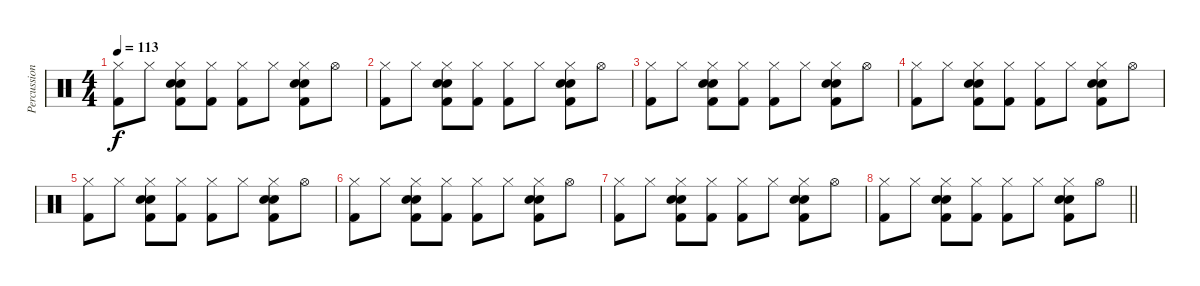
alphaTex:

\track ("Percussion" "Percussion") {instrument percussion}
\staff {score}
\articulation defaults
\ts (4 4)
\tempo 113
\clef neutral
\ks c
("Hi-Hat (closed)" "Kick (hit) 2").8{dy f} "Hi-Hat (closed)".8 ("Hand Clap (hit)" "Hi-Hat (closed)" "Electric Snare (hit)" "Kick (hit) 2").8 ("Hi-Hat (closed)" "Kick (hit) 2").8 ("Hi-Hat (closed)" "Kick (hit) 2").8 "Hi-Hat (closed)".8 ("Hand Clap (hit)" "Hi-Hat (closed)" "Electric Snare (hit)" "Kick (hit) 2").8 "Hi-Hat (open)".8 |
("Hi-Hat (closed)" "Kick (hit) 2").8 "Hi-Hat (closed)".8 ("Hand Clap (hit)" "Hi-Hat (closed)" "Electric Snare (hit)" "Kick (hit) 2").8 ("Hi-Hat (closed)" "Kick (hit) 2").8 ("Hi-Hat (closed)" "Kick (hit) 2").8 "Hi-Hat (closed)".8 ("Hand Clap (hit)" "Hi-Hat (closed)" "Electric Snare (hit)" "Kick (hit) 2").8 "Hi-Hat (open)".8 |
("Hi-Hat (closed)" "Kick (hit) 2").8 "Hi-Hat (closed)".8 ("Hand Clap (hit)" "Hi-Hat (closed)" "Electric Snare (hit)" "Kick (hit) 2").8 ("Hi-Hat (closed)" "Kick (hit) 2").8 ("Hi-Hat (closed)" "Kick (hit) 2").8 "Hi-Hat (closed)".8 ("Hand Clap (hit)" "Hi-Hat (closed)" "Electric Snare (hit)" "Kick (hit) 2").8 "Hi-Hat (open)".8 |
("Hi-Hat (closed)" "Kick (hit) 2").8 "Hi-Hat (closed)".8 ("Hand Clap (hit)" "Hi-Hat (closed)" "Electric Snare (hit)" "Kick (hit) 2").8 ("Hi-Hat (closed)" "Kick (hit) 2").8 ("Hi-Hat (closed)" "Kick (hit) 2").8 "Hi-Hat (closed)".8 ("Hand Clap (hit)" "Hi-Hat (closed)" "Electric Snare (hit)" "Kick (hit) 2").8 "Hi-Hat (open)".8 |
("Hi-Hat (closed)" "Kick (hit) 2").8 "Hi-Hat (closed)".8 ("Hand Clap (hit)" "Hi-Hat (closed)" "Electric Snare (hit)" "Kick (hit) 2").8 ("Hi-Hat (closed)" "Kick (hit) 2").8 ("Hi-Hat (closed)" "Kick (hit) 2").8 "Hi-Hat (closed)".8 ("Hand Clap (hit)" "Hi-Hat (closed)" "Electric Snare (hit)" "Kick (hit) 2").8 "Hi-Hat (open)".8 |
("Hi-Hat (closed)" "Kick (hit) 2").8 "Hi-Hat (closed)".8 ("Hand Clap (hit)" "Hi-Hat (closed)" "Electric Snare (hit)" "Kick (hit) 2").8 ("Hi-Hat (closed)" "Kick (hit) 2").8 ("Hi-Hat (closed)" "Kick (hit) 2").8 "Hi-Hat (closed)".8 ("Hand Clap (hit)" "Hi-Hat (closed)" "Electric Snare (hit)" "Kick (hit) 2").8 "Hi-Hat (open)".8 |
("Hi-Hat (closed)" "Kick (hit) 2").8 "Hi-Hat (closed)".8 ("Hand Clap (hit)" "Hi-Hat (closed)" "Electric Snare (hit)" "Kick (hit) 2").8 ("Hi-Hat (closed)" "Kick (hit) 2").8 ("Hi-Hat (closed)" "Kick (hit) 2").8 "Hi-Hat (closed)".8 ("Hand Clap (hit)" "Hi-Hat (closed)" "Electric Snare (hit)" "Kick (hit) 2").8 "Hi-Hat (open)".8 |
\barLineRight lightlight
("Hi-Hat (closed)" "Kick (hit) 2").8 "Hi-Hat (closed)".8 ("Hand Clap (hit)" "Hi-Hat (closed)" "Electric Snare (hit)" "Kick (hit) 2").8 ("Hi-Hat (closed)" "Kick (hit) 2").8 ("Hi-Hat (closed)" "Kick (hit) 2").8 "Hi-Hat (closed)".8 ("Hand Clap (hit)" "Hi-Hat (closed)" "Electric Snare (hit)" "Kick (hit) 2").8 "Hi-Hat (open)".8
